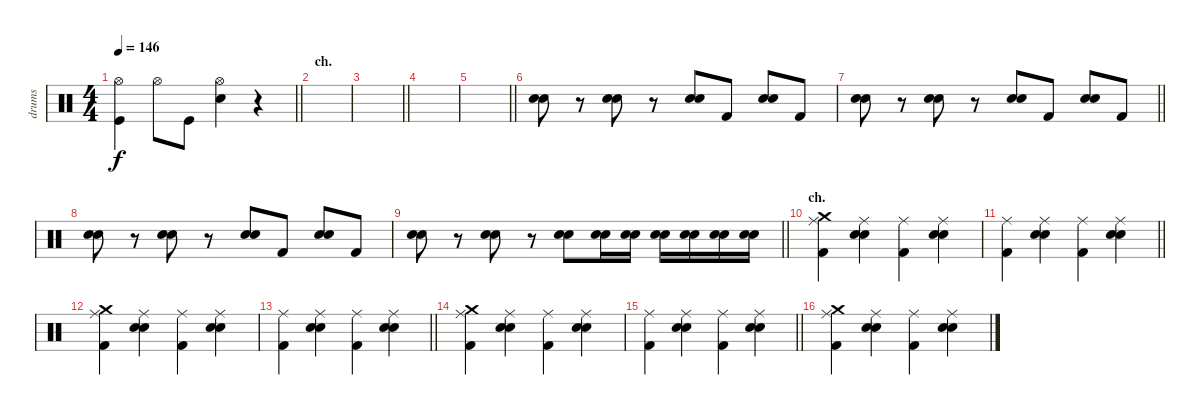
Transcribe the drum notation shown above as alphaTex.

\track ("drums " "drums ") {instrument percussion}
\staff {score}
\articulation defaults
\ts (4 4)
\tempo 146
\clef neutral
\barLineRight lightlight
\ks c
("Hi-Hat (open)" "Kick (hit)").4{dy f} "Hi-Hat (open)".8 "Kick (hit)".8 ("Hi-Hat (open)" "Snare (hit) 2").4 r.4 |
\section ("" "ch.")
|
\barLineRight lightlight
|
|
\barLineRight lightlight
|
("Electric Snare (hit)" "Snare (hit) 2").8 r.8 ("Electric Snare (hit)" "Snare (hit) 2").8 r.8 ("Electric Snare (hit)" "Snare (hit) 2").8 "Kick (hit) 2".8 ("Electric Snare (hit)" "Snare (hit) 2").8 "Kick (hit) 2".8 |
\barLineRight lightlight
("Electric Snare (hit)" "Snare (hit) 2").8 r.8 ("Electric Snare (hit)" "Snare (hit) 2").8 r.8 ("Electric Snare (hit)" "Snare (hit) 2").8 "Kick (hit) 2".8 ("Electric Snare (hit)" "Snare (hit) 2").8 "Kick (hit) 2".8 |
("Electric Snare (hit)" "Snare (hit) 2").8 r.8 ("Electric Snare (hit)" "Snare (hit) 2").8 r.8 ("Electric Snare (hit)" "Snare (hit) 2").8 "Kick (hit) 2".8 ("Electric Snare (hit)" "Snare (hit) 2").8 "Kick (hit) 2".8 |
\barLineRight lightlight
("Electric Snare (hit)" "Snare (hit) 2").8 r.8 ("Electric Snare (hit)" "Snare (hit) 2").8 r.8 ("Electric Snare (hit)" "Snare (hit) 2").8 ("Snare (hit) 2" "Electric Snare (hit)").16 ("Snare (hit) 2" "Electric Snare (hit)").16 ("Snare (hit) 2" "Electric Snare (hit)").16 ("Snare (hit) 2" "Electric Snare (hit)").16 ("Snare (hit) 2" "Electric Snare (hit)").16 ("Snare (hit) 2" "Electric Snare (hit)").16 |
\section ("" "ch.")
("Crash medium (hit)" "Ride (middle)" "Kick (hit) 2").4 ("Ride (middle)" "Electric Snare (hit)" "Snare (hit) 2").4 ("Ride (middle)" "Kick (hit) 2").4 ("Ride (middle)" "Electric Snare (hit)" "Snare (hit) 2").4 |
\barLineRight lightlight
("Ride (middle)" "Kick (hit) 2").4 ("Ride (middle)" "Electric Snare (hit)" "Snare (hit) 2").4 ("Ride (middle)" "Kick (hit) 2").4 ("Ride (middle)" "Electric Snare (hit)" "Snare (hit) 2").4 |
("Crash medium (hit)" "Ride (middle)" "Kick (hit) 2").4 ("Ride (middle)" "Electric Snare (hit)" "Snare (hit) 2").4 ("Ride (middle)" "Kick (hit) 2").4 ("Ride (middle)" "Electric Snare (hit)" "Snare (hit) 2").4 |
\barLineRight lightlight
("Ride (middle)" "Kick (hit) 2").4 ("Ride (middle)" "Electric Snare (hit)" "Snare (hit) 2").4 ("Ride (middle)" "Kick (hit) 2").4 ("Ride (middle)" "Electric Snare (hit)" "Snare (hit) 2").4 |
("Crash medium (hit)" "Ride (middle)" "Kick (hit) 2").4 ("Ride (middle)" "Electric Snare (hit)" "Snare (hit) 2").4 ("Ride (middle)" "Kick (hit) 2").4 ("Ride (middle)" "Electric Snare (hit)" "Snare (hit) 2").4 |
\barLineRight lightlight
("Ride (middle)" "Kick (hit) 2").4 ("Ride (middle)" "Electric Snare (hit)" "Snare (hit) 2").4 ("Ride (middle)" "Kick (hit) 2").4 ("Ride (middle)" "Electric Snare (hit)" "Snare (hit) 2").4 |
("Crash medium (hit)" "Ride (middle)" "Kick (hit) 2").4 ("Ride (middle)" "Electric Snare (hit)" "Snare (hit) 2").4 ("Ride (middle)" "Kick (hit) 2").4 ("Ride (middle)" "Electric Snare (hit)" "Snare (hit) 2").4
